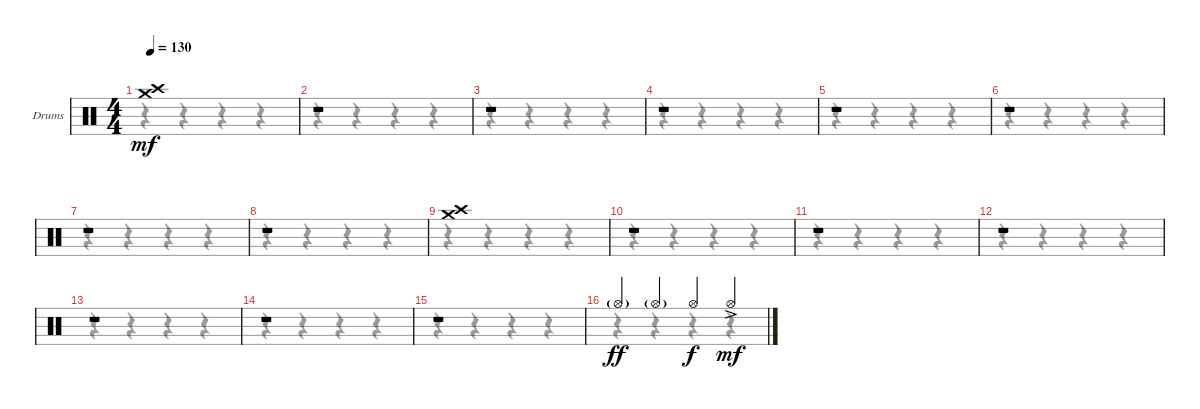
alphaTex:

\bracketExtendMode groupsimilarinstruments
\firstSystemTrackNameOrientation horizontal
\otherSystemsTrackNameOrientation horizontal
\track ("Drumkit" "Drums") {instrument percussion}
\staff {score}
\articulation defaults
\voice
\ts (4 4)
\tempo 130
\clef neutral
\ks c
("Crash high (hit)" "Crash medium (hit)").1{dy mf} |
r.1 |
r.1 |
r.1 |
r.1 |
r.1 |
r.1 |
r.1 |
("Crash medium (hit)" "Crash high (hit)").1 |
r.1 |
r.1 |
r.1 |
r.1 |
r.1 |
r.1 |
"Hi-Hat (open)"{g}.4{dy ff} "Hi-Hat (open)"{g}.4 "Hi-Hat (open)".4{dy f} "Hi-Hat (open)"{ac}.4{dy mf}
\voice
\clef neutral
\ottava regular
\simile none
\ks c
r.4{dy mf} r.4 r.4 r.4 |
r.4 r.4 r.4 r.4 |
r.4 r.4 r.4 r.4 |
r.4 r.4 r.4 r.4 |
r.4 r.4 r.4 r.4 |
r.4 r.4 r.4 r.4 |
r.4 r.4 r.4 r.4 |
r.4 r.4 r.4 r.4 |
r.4 r.4 r.4 r.4 |
r.4 r.4 r.4 r.4 |
r.4 r.4 r.4 r.4 |
r.4 r.4 r.4 r.4 |
r.4 r.4 r.4 r.4 |
r.4 r.4 r.4 r.4 |
r.4 r.4 r.4 r.4 |
r.4 r.4 r.4 r.4
